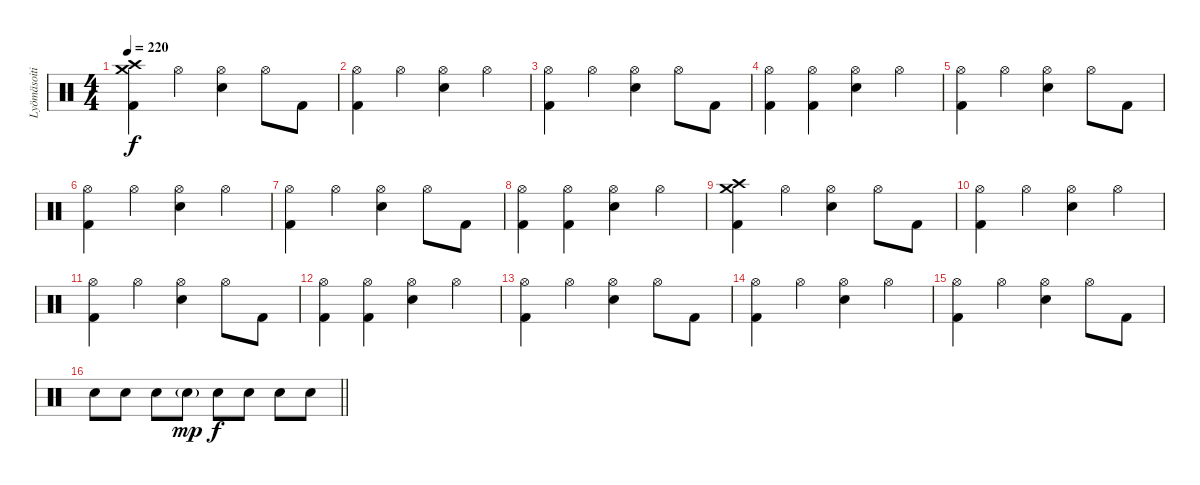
\track ("Lyömäsoitin" "Lyömäsoiti") {instrument percussion}
\staff {score}
\articulation defaults
\ts (4 4)
\section ("" "")
\tempo 220
\clef neutral
\ks c
("Crash medium (hit)" "Crash high (hit)" "Kick (hit) 2").4{dy f} "Hi-Hat (open)".4 ("Hi-Hat (open)" "Electric Snare (hit)").4 "Hi-Hat (open)".8 "Kick (hit) 2".8 |
("Hi-Hat (open)" "Kick (hit) 2").4 "Hi-Hat (open)".4 ("Hi-Hat (open)" "Electric Snare (hit)").4 "Hi-Hat (open)".4 |
("Hi-Hat (open)" "Kick (hit) 2").4 "Hi-Hat (open)".4 ("Hi-Hat (open)" "Electric Snare (hit)").4 "Hi-Hat (open)".8 "Kick (hit) 2".8 |
("Hi-Hat (open)" "Kick (hit) 2").4 ("Hi-Hat (open)" "Kick (hit) 2").4 ("Hi-Hat (open)" "Electric Snare (hit)").4 "Hi-Hat (open)".4 |
("Hi-Hat (open)" "Kick (hit) 2").4 "Hi-Hat (open)".4 ("Hi-Hat (open)" "Electric Snare (hit)").4 "Hi-Hat (open)".8 "Kick (hit) 2".8 |
("Hi-Hat (open)" "Kick (hit) 2").4 "Hi-Hat (open)".4 ("Hi-Hat (open)" "Electric Snare (hit)").4 "Hi-Hat (open)".4 |
("Hi-Hat (open)" "Kick (hit) 2").4 "Hi-Hat (open)".4 ("Hi-Hat (open)" "Electric Snare (hit)").4 "Hi-Hat (open)".8 "Kick (hit) 2".8 |
("Hi-Hat (open)" "Kick (hit) 2").4 ("Hi-Hat (open)" "Kick (hit) 2").4 ("Hi-Hat (open)" "Electric Snare (hit)").4 "Hi-Hat (open)".4 |
("Crash medium (hit)" "Crash high (hit)" "Kick (hit) 2").4 "Hi-Hat (open)".4 ("Hi-Hat (open)" "Electric Snare (hit)").4 "Hi-Hat (open)".8 "Kick (hit) 2".8 |
("Hi-Hat (open)" "Kick (hit) 2").4 "Hi-Hat (open)".4 ("Hi-Hat (open)" "Electric Snare (hit)").4 "Hi-Hat (open)".4 |
("Hi-Hat (open)" "Kick (hit) 2").4 "Hi-Hat (open)".4 ("Hi-Hat (open)" "Electric Snare (hit)").4 "Hi-Hat (open)".8 "Kick (hit) 2".8 |
("Hi-Hat (open)" "Kick (hit) 2").4 ("Hi-Hat (open)" "Kick (hit) 2").4 ("Hi-Hat (open)" "Electric Snare (hit)").4 "Hi-Hat (open)".4 |
("Hi-Hat (open)" "Kick (hit) 2").4 "Hi-Hat (open)".4 ("Hi-Hat (open)" "Electric Snare (hit)").4 "Hi-Hat (open)".8 "Kick (hit) 2".8 |
("Hi-Hat (open)" "Kick (hit) 2").4 "Hi-Hat (open)".4 ("Hi-Hat (open)" "Electric Snare (hit)").4 "Hi-Hat (open)".4 |
("Hi-Hat (open)" "Kick (hit) 2").4 "Hi-Hat (open)".4 ("Hi-Hat (open)" "Electric Snare (hit)").4 "Hi-Hat (open)".8 "Kick (hit) 2".8 |
\barLineRight lightlight "Electric Snare (hit)".8 "Electric Snare (hit)".8 "Electric Snare (hit)".8 "Electric Snare (hit)"{g}.8{dy mp} "Electric Snare (hit)".8{dy f} "Electric Snare (hit)".8 "Electric Snare (hit)".8 "Electric Snare (hit)".8
